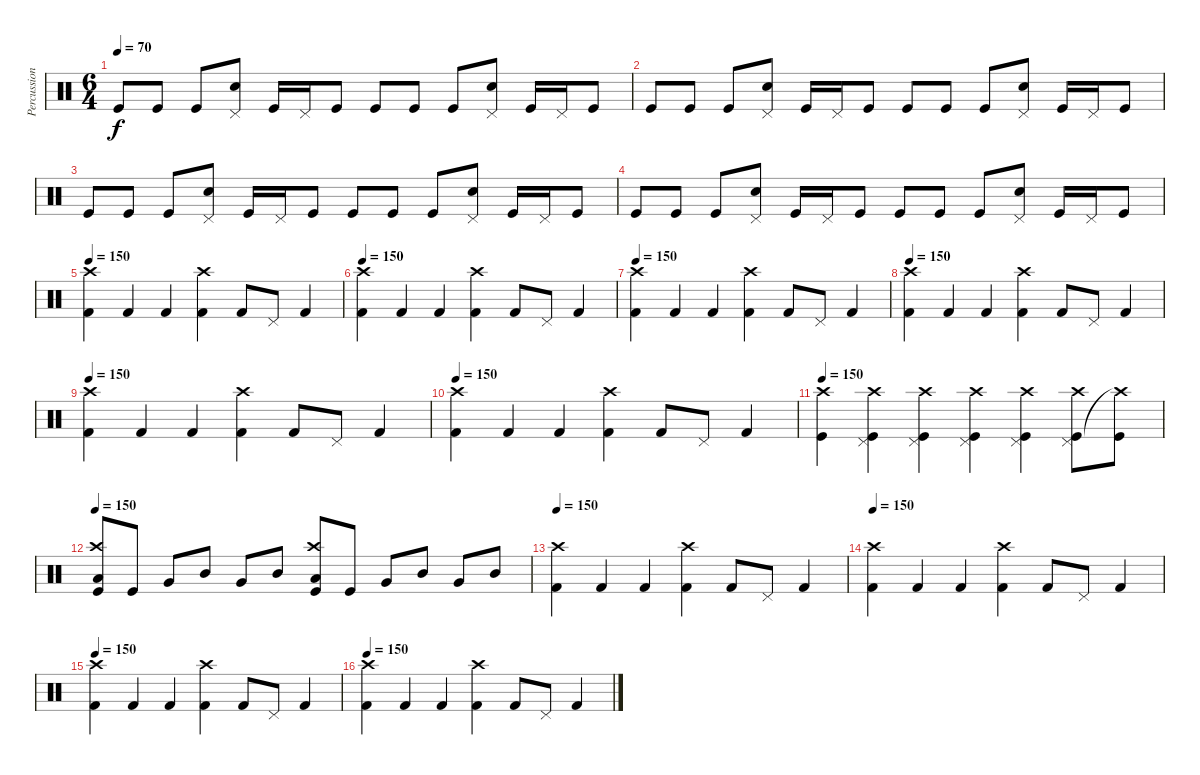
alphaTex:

\track ("Percussion" "Percussion") {instrument percussion}
\staff {score}
\articulation defaults
\ts (6 4)
\tempo 70
\clef neutral
\ks c "Kick (hit)".8{dy f} "Kick (hit)".8 "Kick (hit)".8
("Snare (hit) 2" "Pedal Hi-Hat (hit)").8 "Kick (hit)".16 "Pedal Hi-Hat (hit)".16 "Kick (hit)".8 "Kick (hit)".8 "Kick (hit)".8 "Kick (hit)".8 ("Snare (hit) 2" "Pedal Hi-Hat (hit)").8 "Kick (hit)".16 "Pedal Hi-Hat (hit)".16 "Kick (hit)".8 |
"Kick (hit)".8 "Kick (hit)".8 "Kick (hit)".8 ("Snare (hit) 2" "Pedal Hi-Hat (hit)").8 "Kick (hit)".16 "Pedal Hi-Hat (hit)".16 "Kick (hit)".8 "Kick (hit)".8 "Kick (hit)".8 "Kick (hit)".8 ("Snare (hit) 2" "Pedal Hi-Hat (hit)").8 "Kick (hit)".16 "Pedal Hi-Hat (hit)".16 "Kick (hit)".8 |
"Kick (hit)".8 "Kick (hit)".8 "Kick (hit)".8 ("Snare (hit) 2" "Pedal Hi-Hat (hit)").8 "Kick (hit)".16 "Pedal Hi-Hat (hit)".16 "Kick (hit)".8 "Kick (hit)".8 "Kick (hit)".8 "Kick (hit)".8 ("Snare (hit) 2" "Pedal Hi-Hat (hit)").8 "Kick (hit)".16 "Pedal Hi-Hat (hit)".16 "Kick (hit)".8 |
"Kick (hit)".8 "Kick (hit)".8 "Kick (hit)".8 ("Snare (hit) 2" "Pedal Hi-Hat (hit)").8 "Kick (hit)".16 "Pedal Hi-Hat (hit)".16 "Kick (hit)".8 "Kick (hit)".8 "Kick (hit)".8 "Kick (hit)".8 ("Snare (hit) 2" "Pedal Hi-Hat (hit)").8 "Kick (hit)".16 "Pedal Hi-Hat (hit)".16 "Kick (hit)".8 |
\tempo 150
("Kick (hit) 2" "Crash high (hit)").4 "Kick (hit) 2".4 "Kick (hit) 2".4 ("Kick (hit) 2" "Crash high (hit)").4 "Kick (hit) 2".8 "Pedal Hi-Hat (hit)".8 "Kick (hit) 2".4 |
\tempo 150
("Kick (hit) 2" "Crash high (hit)").4 "Kick (hit) 2".4 "Kick (hit) 2".4 ("Kick (hit) 2" "Crash high (hit)").4 "Kick (hit) 2".8 "Pedal Hi-Hat (hit)".8 "Kick (hit) 2".4 |
\tempo 150
("Kick (hit) 2" "Crash high (hit)").4 "Kick (hit) 2".4 "Kick (hit) 2".4 ("Kick (hit) 2" "Crash high (hit)").4 "Kick (hit) 2".8 "Pedal Hi-Hat (hit)".8 "Kick (hit) 2".4 |
\tempo 150
("Kick (hit) 2" "Crash high (hit)").4 "Kick (hit) 2".4 "Kick (hit) 2".4 ("Kick (hit) 2" "Crash high (hit)").4 "Kick (hit) 2".8 "Pedal Hi-Hat (hit)".8 "Kick (hit) 2".4 |
\tempo 150
("Kick (hit) 2" "Crash high (hit)").4 "Kick (hit) 2".4 "Kick (hit) 2".4 ("Kick (hit) 2" "Crash high (hit)").4 "Kick (hit) 2".8 "Pedal Hi-Hat (hit)".8 "Kick (hit) 2".4 |
\tempo 150
("Kick (hit) 2" "Crash high (hit)").4 "Kick (hit) 2".4 "Kick (hit) 2".4 ("Kick (hit) 2" "Crash high (hit)").4 "Kick (hit) 2".8 "Pedal Hi-Hat (hit)".8 "Kick (hit) 2".4 |
\tempo 150
("Kick (hit)" "Crash high (hit)").4 ("Kick (hit)" "Pedal Hi-Hat (hit)" "Crash high (hit)").4 ("Kick (hit)" "Pedal Hi-Hat (hit)" "Crash high (hit)").4 ("Kick (hit)" "Pedal Hi-Hat (hit)" "Crash high (hit)").4 ("Kick (hit)" "Pedal Hi-Hat (hit)" "Crash high (hit)").4 ("Kick (hit)" "Pedal Hi-Hat (hit)" "Crash high (hit)").8 ("Kick (hit)" "Crash high (hit)"{t}).8 |
\tempo 150
("Kick (hit)" "Low Floor Tom (hit)" "Crash high (hit)").8 "Kick (hit)".8 "Very Low Tom (hit)".8 "Mid Tom (hit)".8 "Very Low Tom (hit)".8 "Mid Tom (hit)".8 ("Kick (hit)" "Low Floor Tom (hit)" "Crash high (hit)").8 "Kick (hit)".8 "Very Low Tom (hit)".8 "Mid Tom (hit)".8 "Very Low Tom (hit)".8 "Mid Tom (hit)".8 |
\tempo 150
("Kick (hit) 2" "Crash high (hit)").4 "Kick (hit) 2".4 "Kick (hit) 2".4 ("Kick (hit) 2" "Crash high (hit)").4 "Kick (hit) 2".8 "Pedal Hi-Hat (hit)".8 "Kick (hit) 2".4 |
\tempo 150
("Kick (hit) 2" "Crash high (hit)").4 "Kick (hit) 2".4 "Kick (hit) 2".4 ("Kick (hit) 2" "Crash high (hit)").4 "Kick (hit) 2".8 "Pedal Hi-Hat (hit)".8 "Kick (hit) 2".4 |
\tempo 150
("Kick (hit) 2" "Crash high (hit)").4 "Kick (hit) 2".4 "Kick (hit) 2".4 ("Kick (hit) 2" "Crash high (hit)").4 "Kick (hit) 2".8 "Pedal Hi-Hat (hit)".8 "Kick (hit) 2".4 |
\tempo 150
("Kick (hit) 2" "Crash high (hit)").4 "Kick (hit) 2".4 "Kick (hit) 2".4 ("Kick (hit) 2" "Crash high (hit)").4 "Kick (hit) 2".8 "Pedal Hi-Hat (hit)".8 "Kick (hit) 2".4
